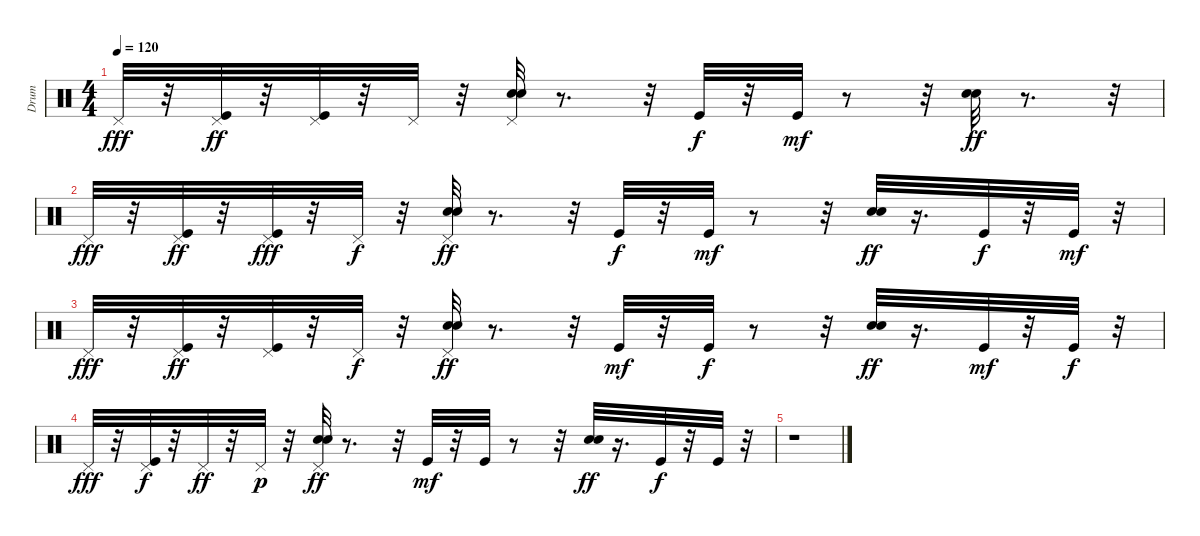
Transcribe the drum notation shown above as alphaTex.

\track ("Drum" "Drum") {instrument percussion}
\staff {score}
\articulation defaults
\ts (4 4)
\tempo 120
\clef neutral
\ks c "Pedal Hi-Hat (hit)".32{dy fff}
r.32 ("Kick (hit)" "Pedal Hi-Hat (hit)").32{dy ff} r.32 ("Kick (hit)" "Pedal Hi-Hat (hit)").32 r.32 "Pedal Hi-Hat (hit)".32 r.32 ("Snare (hit) 2" "Electric Snare (hit)" "Pedal Hi-Hat (hit)").32 r.8{d} r.32 "Kick (hit)".32{dy f} r.32 "Kick (hit)".32{dy mf} r.8 r.32 ("Snare (hit) 2" "Electric Snare (hit)").32{dy ff} r.8{d} r.32 |
"Pedal Hi-Hat (hit)".32{dy fff} r.32 ("Kick (hit)" "Pedal Hi-Hat (hit)").32{dy ff} r.32 ("Kick (hit)" "Pedal Hi-Hat (hit)").32{dy fff} r.32 "Pedal Hi-Hat (hit)".32{dy f} r.32 ("Snare (hit) 2" "Electric Snare (hit)" "Pedal Hi-Hat (hit)").32{dy ff} r.8{d} r.32 "Kick (hit)".32{dy f} r.32 "Kick (hit)".32{dy mf} r.8 r.32 ("Electric Snare (hit)" "Snare (hit) 2").32{dy ff} r.16{d} "Kick (hit)".32{dy f} r.32 "Kick (hit)".32{dy mf} r.32 |
"Pedal Hi-Hat (hit)".32{dy fff} r.32 ("Kick (hit)" "Pedal Hi-Hat (hit)").32{dy ff} r.32 ("Kick (hit)" "Pedal Hi-Hat (hit)").32 r.32 "Pedal Hi-Hat (hit)".32{dy f} r.32 ("Snare (hit) 2" "Electric Snare (hit)" "Pedal Hi-Hat (hit)").32{dy ff} r.8{d} r.32 "Kick (hit)".32{dy mf} r.32 "Kick (hit)".32{dy f} r.8 r.32 ("Snare (hit) 2" "Electric Snare (hit)").32{dy ff} r.16{d} "Kick (hit)".32{dy mf} r.32 "Kick (hit)".32{dy f} r.32 |
"Pedal Hi-Hat (hit)".32{dy fff} r.32 ("Pedal Hi-Hat (hit)" "Kick (hit)").32{dy f} r.32 "Pedal Hi-Hat (hit)".32{dy ff} r.32 "Pedal Hi-Hat (hit)".32{dy p} r.32 ("Snare (hit) 2" "Electric Snare (hit)" "Pedal Hi-Hat (hit)").32{dy ff} r.8{d} r.32 "Kick (hit)".32{dy mf} r.32 "Kick (hit)".32 r.8 r.32 ("Snare (hit) 2" "Electric Snare (hit)").32{dy ff} r.16{d} "Kick (hit)".32{dy f} r.32 "Kick (hit)".32 r.32 |
r.1
